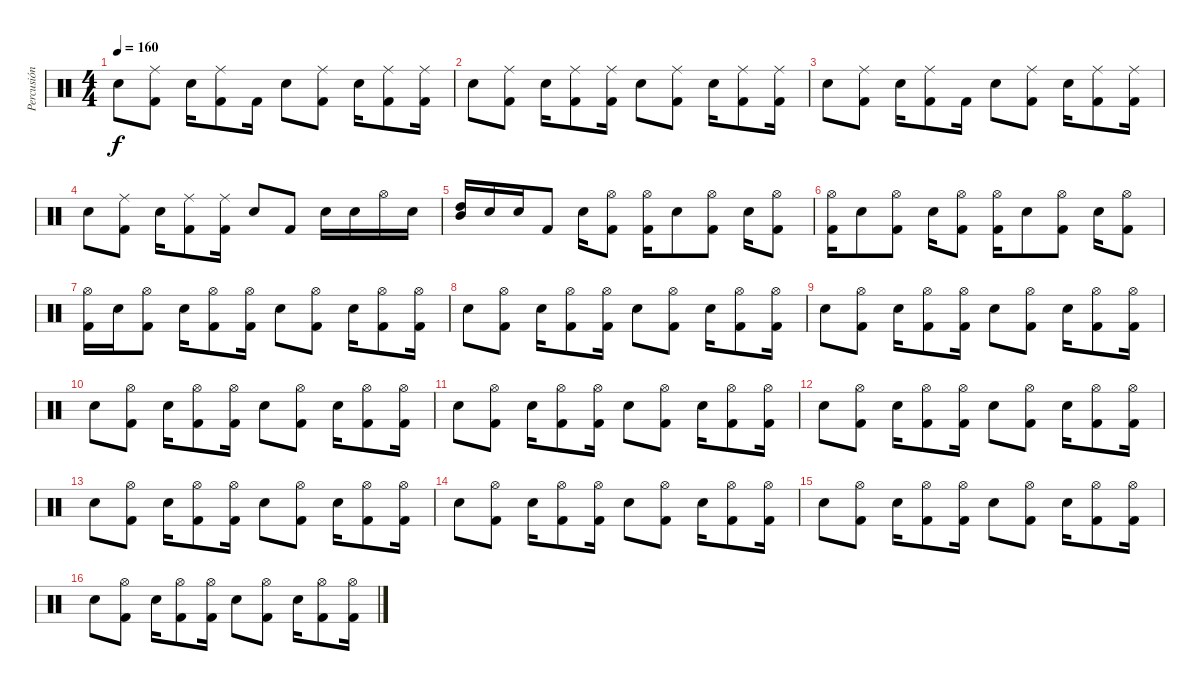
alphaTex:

\track ("Percusión" "Percusión") {instrument percussion}
\staff {score}
\articulation defaults
\ts (4 4)
\tempo 160
\clef neutral
\ks c "Snare (hit) 2".8{dy f}
("Kick (hit) 2" "Ride (middle)").8 "Snare (hit) 2".16 ("Kick (hit) 2" "Ride (middle)").8 "Kick (hit) 2".16 "Snare (hit) 2".8 ("Kick (hit) 2" "Ride (middle)").8 "Snare (hit) 2".16 ("Kick (hit) 2" "Ride (middle)").8 ("Kick (hit) 2" "Ride (middle)").16 |
"Snare (hit) 2".8 ("Kick (hit) 2" "Ride (middle)").8 "Snare (hit) 2".16 ("Kick (hit) 2" "Ride (middle)").8 ("Kick (hit) 2" "Ride (middle)").16 "Snare (hit) 2".8 ("Kick (hit) 2" "Ride (middle)").8 "Snare (hit) 2".16 ("Kick (hit) 2" "Ride (middle)").8 ("Kick (hit) 2" "Ride (middle)").16 |
"Snare (hit) 2".8 ("Kick (hit) 2" "Ride (middle)").8 "Snare (hit) 2".16 ("Kick (hit) 2" "Ride (middle)").8 "Kick (hit) 2".16 "Snare (hit) 2".8 ("Kick (hit) 2" "Ride (middle)").8 "Snare (hit) 2".16 ("Kick (hit) 2" "Ride (middle)").8 ("Kick (hit) 2" "Ride (middle)").16 |
"Snare (hit) 2".8 ("Kick (hit) 2" "Ride (middle)").8 "Snare (hit) 2".16 ("Kick (hit) 2" "Ride (middle)").8 ("Kick (hit) 2" "Ride (middle)").16 "Snare (hit) 2".8 "Kick (hit) 2".8 "Electric Snare (hit)".16 "Electric Snare (hit)".16 "Hi-Hat (open)".16 "Electric Snare (hit)".16 |
("High Tom (hit)" "Mid Tom (hit)").16 "Electric Snare (hit)".16 "Electric Snare (hit)".16 "Kick (hit) 2".8 "Snare (hit) 2".16 ("Kick (hit) 2" "Hi-Hat (open)").8 ("Kick (hit) 2" "Hi-Hat (open)").16 "Snare (hit) 2".8 ("Kick (hit) 2" "Hi-Hat (open)").8 "Snare (hit) 2".16 ("Kick (hit) 2" "Hi-Hat (open)").8 |
("Kick (hit) 2" "Hi-Hat (open)").16 "Snare (hit) 2".8 ("Kick (hit) 2" "Hi-Hat (open)").8 "Snare (hit) 2".16 ("Kick (hit) 2" "Hi-Hat (open)").8 ("Kick (hit) 2" "Hi-Hat (open)").16 "Snare (hit) 2".8 ("Kick (hit) 2" "Hi-Hat (open)").8 "Snare (hit) 2".16 ("Kick (hit) 2" "Hi-Hat (open)").8 |
("Kick (hit) 2" "Hi-Hat (open)").16 "Snare (hit) 2".16 ("Kick (hit) 2" "Hi-Hat (open)").8 "Snare (hit) 2".16 ("Kick (hit) 2" "Hi-Hat (open)").8 ("Kick (hit) 2" "Hi-Hat (open)").16 "Snare (hit) 2".8 ("Kick (hit) 2" "Hi-Hat (open)").8 "Snare (hit) 2".16 ("Kick (hit) 2" "Hi-Hat (open)").8 ("Kick (hit) 2" "Hi-Hat (open)").16 |
"Snare (hit) 2".8 ("Kick (hit) 2" "Hi-Hat (open)").8 "Snare (hit) 2".16 ("Kick (hit) 2" "Hi-Hat (open)").8 ("Kick (hit) 2" "Hi-Hat (open)").16 "Snare (hit) 2".8 ("Kick (hit) 2" "Hi-Hat (open)").8 "Snare (hit) 2".16 ("Kick (hit) 2" "Hi-Hat (open)").8 ("Kick (hit) 2" "Hi-Hat (open)").16 |
"Snare (hit) 2".8 ("Kick (hit) 2" "Hi-Hat (open)").8 "Snare (hit) 2".16 ("Kick (hit) 2" "Hi-Hat (open)").8 ("Kick (hit) 2" "Hi-Hat (open)").16 "Snare (hit) 2".8 ("Kick (hit) 2" "Hi-Hat (open)").8 "Snare (hit) 2".16 ("Kick (hit) 2" "Hi-Hat (open)").8 ("Kick (hit) 2" "Hi-Hat (open)").16 |
"Snare (hit) 2".8 ("Kick (hit) 2" "Hi-Hat (open)").8 "Snare (hit) 2".16 ("Kick (hit) 2" "Hi-Hat (open)").8 ("Kick (hit) 2" "Hi-Hat (open)").16 "Snare (hit) 2".8 ("Kick (hit) 2" "Hi-Hat (open)").8 "Snare (hit) 2".16 ("Kick (hit) 2" "Hi-Hat (open)").8 ("Kick (hit) 2" "Hi-Hat (open)").16 |
"Snare (hit) 2".8 ("Kick (hit) 2" "Hi-Hat (open)").8 "Snare (hit) 2".16 ("Kick (hit) 2" "Hi-Hat (open)").8 ("Kick (hit) 2" "Hi-Hat (open)").16 "Snare (hit) 2".8 ("Kick (hit) 2" "Hi-Hat (open)").8 "Snare (hit) 2".16 ("Kick (hit) 2" "Hi-Hat (open)").8 ("Kick (hit) 2" "Hi-Hat (open)").16 |
"Snare (hit) 2".8 ("Kick (hit) 2" "Hi-Hat (open)").8 "Snare (hit) 2".16 ("Kick (hit) 2" "Hi-Hat (open)").8 ("Kick (hit) 2" "Hi-Hat (open)").16 "Snare (hit) 2".8 ("Kick (hit) 2" "Hi-Hat (open)").8 "Snare (hit) 2".16 ("Kick (hit) 2" "Hi-Hat (open)").8 ("Kick (hit) 2" "Hi-Hat (open)").16 |
"Snare (hit) 2".8 ("Kick (hit) 2" "Hi-Hat (open)").8 "Snare (hit) 2".16 ("Kick (hit) 2" "Hi-Hat (open)").8 ("Kick (hit) 2" "Hi-Hat (open)").16 "Snare (hit) 2".8 ("Kick (hit) 2" "Hi-Hat (open)").8 "Snare (hit) 2".16 ("Kick (hit) 2" "Hi-Hat (open)").8 ("Kick (hit) 2" "Hi-Hat (open)").16 |
"Snare (hit) 2".8 ("Kick (hit) 2" "Hi-Hat (open)").8 "Snare (hit) 2".16 ("Kick (hit) 2" "Hi-Hat (open)").8 ("Kick (hit) 2" "Hi-Hat (open)").16 "Snare (hit) 2".8 ("Kick (hit) 2" "Hi-Hat (open)").8 "Snare (hit) 2".16 ("Kick (hit) 2" "Hi-Hat (open)").8 ("Kick (hit) 2" "Hi-Hat (open)").16 |
"Snare (hit) 2".8 ("Kick (hit) 2" "Hi-Hat (open)").8 "Snare (hit) 2".16 ("Kick (hit) 2" "Hi-Hat (open)").8 ("Kick (hit) 2" "Hi-Hat (open)").16 "Snare (hit) 2".8 ("Kick (hit) 2" "Hi-Hat (open)").8 "Snare (hit) 2".16 ("Kick (hit) 2" "Hi-Hat (open)").8 ("Kick (hit) 2" "Hi-Hat (open)").16 |
"Snare (hit) 2".8 ("Kick (hit) 2" "Hi-Hat (open)").8 "Snare (hit) 2".16 ("Kick (hit) 2" "Hi-Hat (open)").8 ("Kick (hit) 2" "Hi-Hat (open)").16 "Snare (hit) 2".8 ("Kick (hit) 2" "Hi-Hat (open)").8 "Snare (hit) 2".16 ("Kick (hit) 2" "Hi-Hat (open)").8 ("Kick (hit) 2" "Hi-Hat (open)").16
